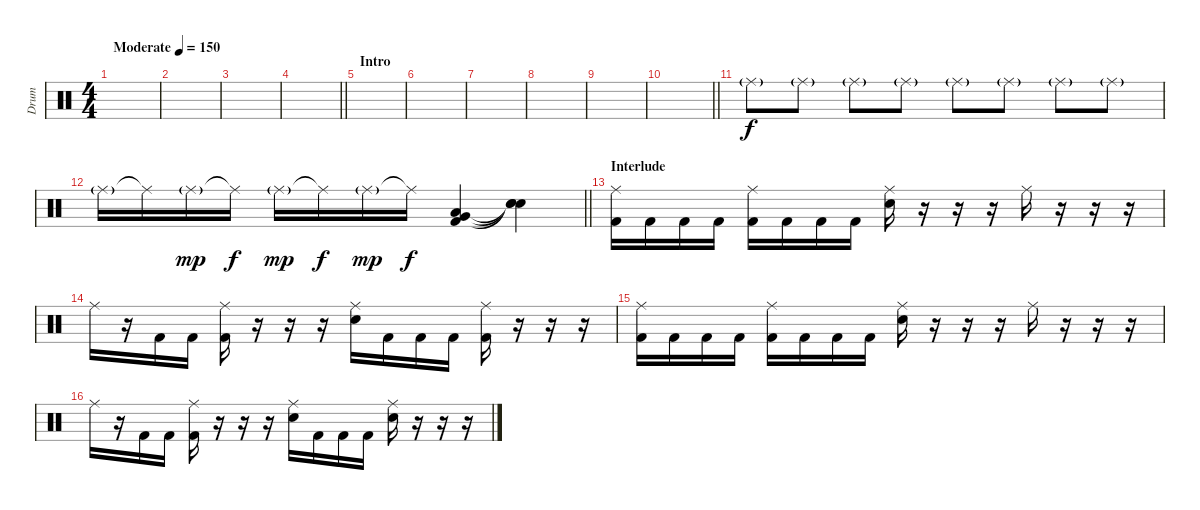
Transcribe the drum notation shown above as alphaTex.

\track ("Drum" "Drum") {instrument percussion}
\staff {score}
\articulation defaults
\ts (4 4)
\tempo (150 "Moderate")
\clef neutral
\ks c
|
|
|
\barLineRight lightlight
|
\section ("" "Intro")
|
|
|
|
|
\barLineRight lightlight
|
"Ride (middle)"{g}.8 "Ride (middle)"{g}.8 "Ride (middle)"{g}.8 "Ride (middle)"{g}.8 "Ride (middle)"{g}.8 "Ride (middle)"{g}.8 "Ride (middle)"{g}.8 "Ride (middle)"{g}.8 |
\barLineRight lightlight "Ride (middle)"{g}.16 "Ride (middle)"{t}.16{dy f} "Ride (middle)"{g}.16{dy mp} "Ride (middle)"{t}.16{dy f} "Ride (middle)"{g}.16{dy mp} "Ride (middle)"{t}.16{dy f} "Ride (middle)"{g}.16{dy mp} "Ride (middle)"{t}.16{dy f}
("Very Low Tom (hit)" "Low Tom (hit)" "Kick (hit) 2").4 ("Snare (hit)"{t} "Snare (hit)"{t} "Snare (hit)"{t}).4 |
\section ("" "Interlude")
("Kick (hit) 2" "Ride (middle)").16 "Kick (hit) 2".16 "Kick (hit) 2".16 "Kick (hit) 2".16 ("Kick (hit) 2" "Ride (middle)").16 "Kick (hit) 2".16 "Kick (hit) 2".16 "Kick (hit) 2".16 ("Electric Snare (hit)" "Ride (middle)").16 r.16 r.16 r.16 "Ride (middle)".16 r.16 r.16 r.16 |
"Ride (middle)".16 r.16 "Kick (hit) 2".16 "Kick (hit) 2".16 ("Kick (hit) 2" "Ride (middle)").16 r.16 r.16 r.16 ("Electric Snare (hit)" "Ride (middle)").16 "Kick (hit) 2".16 "Kick (hit) 2".16 "Kick (hit) 2".16 ("Kick (hit) 2" "Ride (middle)").16 r.16 r.16 r.16 |
("Kick (hit) 2" "Ride (middle)").16 "Kick (hit) 2".16 "Kick (hit) 2".16 "Kick (hit) 2".16 ("Kick (hit) 2" "Ride (middle)").16 "Kick (hit) 2".16 "Kick (hit) 2".16 "Kick (hit) 2".16 ("Electric Snare (hit)" "Ride (middle)").16 r.16 r.16 r.16 "Ride (middle)".16 r.16 r.16 r.16 |
"Ride (middle)".16 r.16 "Kick (hit) 2".16 "Kick (hit) 2".16 ("Kick (hit) 2" "Ride (middle)").16 r.16 r.16 r.16 ("Electric Snare (hit)" "Ride (middle)").16 "Kick (hit) 2".16 "Kick (hit) 2".16 "Kick (hit) 2".16 ("Electric Snare (hit)" "Ride (middle)").16 r.16 r.16 r.16
